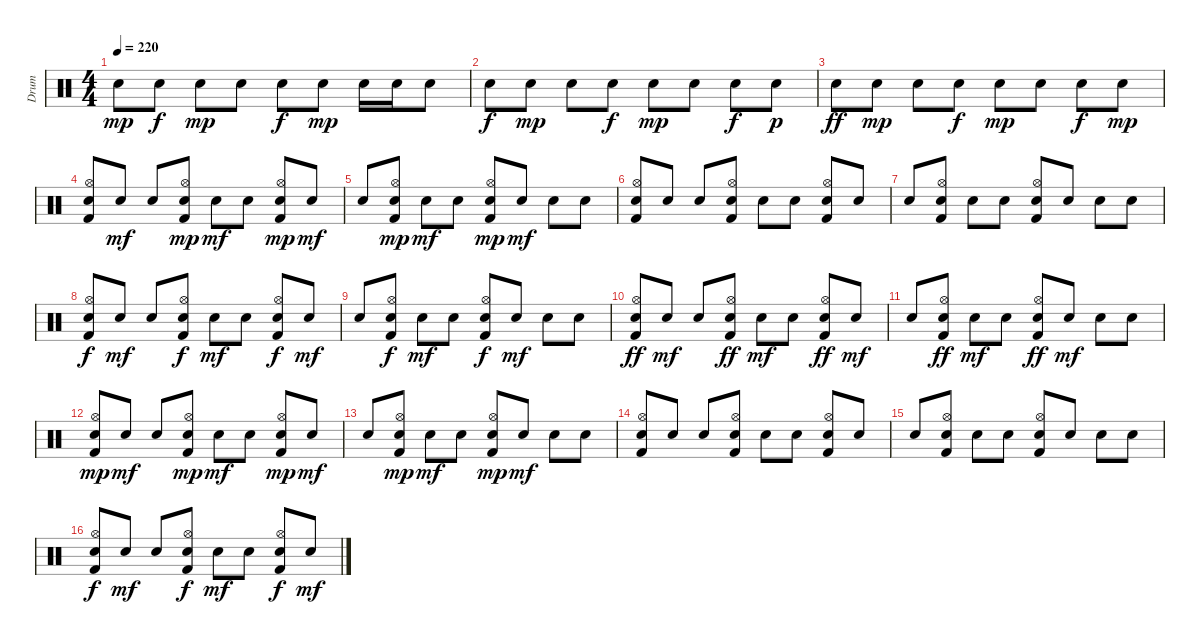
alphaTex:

\track ("Drum" "Drum") {instrument percussion}
\staff {score}
\articulation defaults
\ts (4 4)
\tempo 220
\clef neutral
\ks c "Snare (hit) 2".8{dy mp} "Snare (hit) 2".8{dy f} "Snare (hit) 2".8{dy mp} "Snare (hit) 2".8 "Snare (hit) 2".8{dy f} "Snare (hit) 2".8{dy mp} "Snare (hit) 2".16 "Snare (hit) 2".16 "Snare (hit) 2".8
|
"Snare (hit) 2".8{dy f} "Snare (hit) 2".8{dy mp} "Snare (hit) 2".8 "Snare (hit) 2".8{dy f} "Snare (hit) 2".8{dy mp} "Snare (hit) 2".8 "Snare (hit) 2".8{dy f} "Snare (hit) 2".8{dy p} |
"Snare (hit) 2".8{dy ff} "Snare (hit) 2".8{dy mp} "Snare (hit) 2".8 "Snare (hit) 2".8{dy f} "Snare (hit) 2".8{dy mp} "Snare (hit) 2".8 "Snare (hit) 2".8{dy f} "Snare (hit) 2".8{dy mp} |
("Hi-Hat (open)" "Snare (hit) 2" "Kick (hit) 2").8 "Snare (hit) 2".8{dy mf} "Snare (hit) 2".8 ("Hi-Hat (open)" "Snare (hit) 2" "Kick (hit) 2").8{dy mp} "Snare (hit) 2".8{dy mf} "Snare (hit) 2".8 ("Hi-Hat (open)" "Snare (hit) 2" "Kick (hit) 2").8{dy mp} "Snare (hit) 2".8{dy mf} |
"Snare (hit) 2".8 ("Hi-Hat (open)" "Snare (hit) 2" "Kick (hit) 2").8{dy mp} "Snare (hit) 2".8{dy mf} "Snare (hit) 2".8 ("Hi-Hat (open)" "Snare (hit) 2" "Kick (hit) 2").8{dy mp} "Snare (hit) 2".8{dy mf} "Snare (hit) 2".8 "Snare (hit) 2".8 |
("Hi-Hat (open)" "Snare (hit) 2" "Kick (hit) 2").8 "Snare (hit) 2".8 "Snare (hit) 2".8 ("Hi-Hat (open)" "Snare (hit) 2" "Kick (hit) 2").8 "Snare (hit) 2".8 "Snare (hit) 2".8 ("Hi-Hat (open)" "Snare (hit) 2" "Kick (hit) 2").8 "Snare (hit) 2".8 |
"Snare (hit) 2".8 ("Hi-Hat (open)" "Snare (hit) 2" "Kick (hit) 2").8 "Snare (hit) 2".8 "Snare (hit) 2".8 ("Hi-Hat (open)" "Snare (hit) 2" "Kick (hit) 2").8 "Snare (hit) 2".8 "Snare (hit) 2".8 "Snare (hit) 2".8 |
("Hi-Hat (open)" "Snare (hit) 2" "Kick (hit) 2").8{dy f} "Snare (hit) 2".8{dy mf} "Snare (hit) 2".8 ("Hi-Hat (open)" "Snare (hit) 2" "Kick (hit) 2").8{dy f} "Snare (hit) 2".8{dy mf} "Snare (hit) 2".8 ("Hi-Hat (open)" "Snare (hit) 2" "Kick (hit) 2").8{dy f} "Snare (hit) 2".8{dy mf} |
"Snare (hit) 2".8 ("Hi-Hat (open)" "Snare (hit) 2" "Kick (hit) 2").8{dy f} "Snare (hit) 2".8{dy mf} "Snare (hit) 2".8 ("Hi-Hat (open)" "Snare (hit) 2" "Kick (hit) 2").8{dy f} "Snare (hit) 2".8{dy mf} "Snare (hit) 2".8 "Snare (hit) 2".8 |
("Hi-Hat (open)" "Snare (hit) 2" "Kick (hit) 2").8{dy ff} "Snare (hit) 2".8{dy mf} "Snare (hit) 2".8 ("Hi-Hat (open)" "Snare (hit) 2" "Kick (hit) 2").8{dy ff} "Snare (hit) 2".8{dy mf} "Snare (hit) 2".8 ("Hi-Hat (open)" "Snare (hit) 2" "Kick (hit) 2").8{dy ff} "Snare (hit) 2".8{dy mf} |
"Snare (hit) 2".8 ("Hi-Hat (open)" "Snare (hit) 2" "Kick (hit) 2").8{dy ff} "Snare (hit) 2".8{dy mf} "Snare (hit) 2".8 ("Hi-Hat (open)" "Snare (hit) 2" "Kick (hit) 2").8{dy ff} "Snare (hit) 2".8{dy mf} "Snare (hit) 2".8 "Snare (hit) 2".8 |
("Hi-Hat (open)" "Snare (hit) 2" "Kick (hit) 2").8{dy mp} "Snare (hit) 2".8{dy mf} "Snare (hit) 2".8 ("Hi-Hat (open)" "Snare (hit) 2" "Kick (hit) 2").8{dy mp} "Snare (hit) 2".8{dy mf} "Snare (hit) 2".8 ("Hi-Hat (open)" "Snare (hit) 2" "Kick (hit) 2").8{dy mp} "Snare (hit) 2".8{dy mf} |
"Snare (hit) 2".8 ("Hi-Hat (open)" "Snare (hit) 2" "Kick (hit) 2").8{dy mp} "Snare (hit) 2".8{dy mf} "Snare (hit) 2".8 ("Hi-Hat (open)" "Snare (hit) 2" "Kick (hit) 2").8{dy mp} "Snare (hit) 2".8{dy mf} "Snare (hit) 2".8 "Snare (hit) 2".8 |
("Hi-Hat (open)" "Snare (hit) 2" "Kick (hit) 2").8 "Snare (hit) 2".8 "Snare (hit) 2".8 ("Hi-Hat (open)" "Snare (hit) 2" "Kick (hit) 2").8 "Snare (hit) 2".8 "Snare (hit) 2".8 ("Hi-Hat (open)" "Snare (hit) 2" "Kick (hit) 2").8 "Snare (hit) 2".8 |
"Snare (hit) 2".8 ("Hi-Hat (open)" "Snare (hit) 2" "Kick (hit) 2").8 "Snare (hit) 2".8 "Snare (hit) 2".8 ("Hi-Hat (open)" "Snare (hit) 2" "Kick (hit) 2").8 "Snare (hit) 2".8 "Snare (hit) 2".8 "Snare (hit) 2".8 |
("Hi-Hat (open)" "Snare (hit) 2" "Kick (hit) 2").8{dy f} "Snare (hit) 2".8{dy mf} "Snare (hit) 2".8 ("Hi-Hat (open)" "Snare (hit) 2" "Kick (hit) 2").8{dy f} "Snare (hit) 2".8{dy mf} "Snare (hit) 2".8 ("Hi-Hat (open)" "Snare (hit) 2" "Kick (hit) 2").8{dy f} "Snare (hit) 2".8{dy mf}
